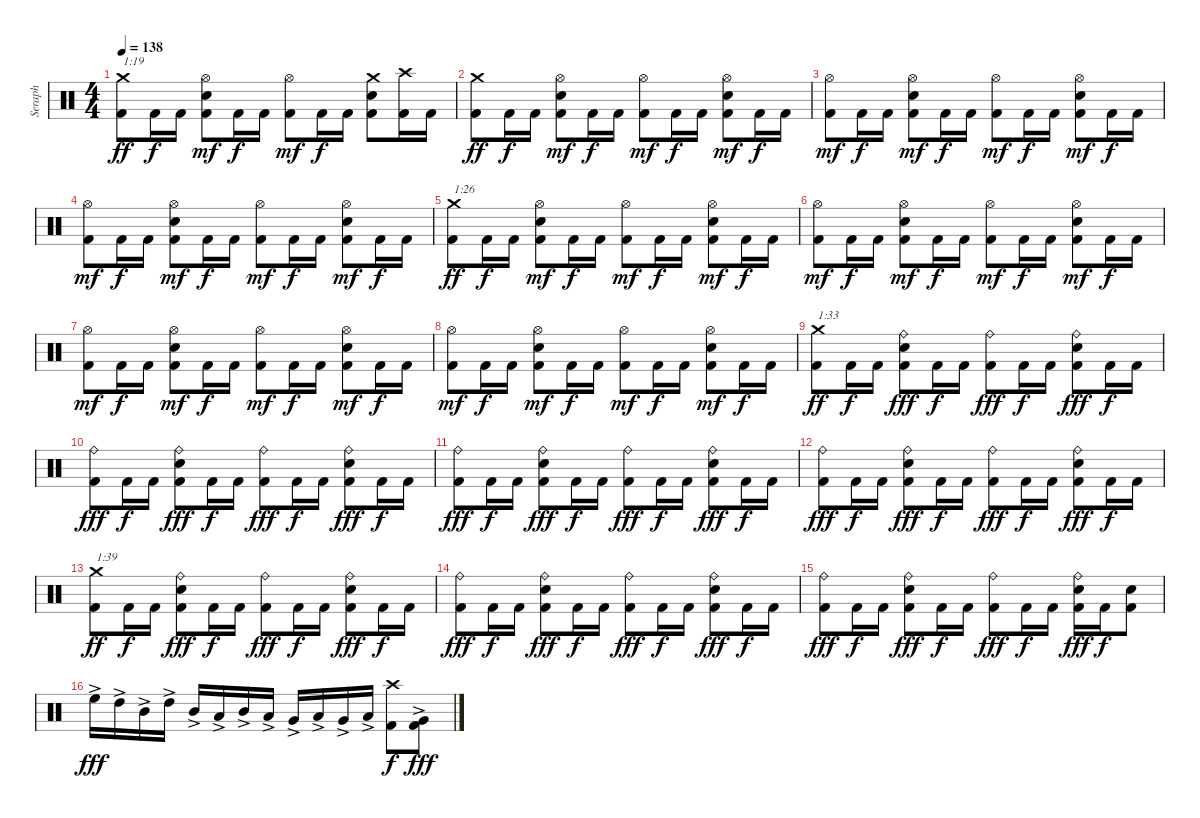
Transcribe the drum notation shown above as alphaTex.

\track ("Seraph" "Seraph") {instrument percussion}
\staff {score}
\articulation defaults
\ts (4 4)
\tempo 138
\clef neutral
\ks c
("Kick (hit) 2" "Crash medium (hit)").8{txt "1:19" dy ff} "Kick (hit) 2".16{dy f} "Kick (hit) 2".16 ("Kick (hit) 2" "Electric Snare (hit)" "Hi-Hat (open)").8{dy mf} "Kick (hit) 2".16{dy f} "Kick (hit) 2".16 ("Kick (hit) 2" "Hi-Hat (open)").8{dy mf} "Kick (hit) 2".16{dy f} "Kick (hit) 2".16 ("Kick (hit) 2" "Electric Snare (hit)" "Crash medium (hit)").8 ("Kick (hit) 2" "Crash high (hit)").16 "Kick (hit) 2".16 |
("Kick (hit) 2" "Crash medium (hit)").8{dy ff} "Kick (hit) 2".16{dy f} "Kick (hit) 2".16 ("Kick (hit) 2" "Electric Snare (hit)" "Hi-Hat (open)").8{dy mf} "Kick (hit) 2".16{dy f} "Kick (hit) 2".16 ("Kick (hit) 2" "Hi-Hat (open)").8{dy mf} "Kick (hit) 2".16{dy f} "Kick (hit) 2".16 ("Kick (hit) 2" "Electric Snare (hit)" "Hi-Hat (open)").8{dy mf} "Kick (hit) 2".16{dy f} "Kick (hit) 2".16 |
("Kick (hit) 2" "Hi-Hat (open)").8{dy mf} "Kick (hit) 2".16{dy f} "Kick (hit) 2".16 ("Kick (hit) 2" "Electric Snare (hit)" "Hi-Hat (open)").8{dy mf} "Kick (hit) 2".16{dy f} "Kick (hit) 2".16 ("Kick (hit) 2" "Hi-Hat (open)").8{dy mf} "Kick (hit) 2".16{dy f} "Kick (hit) 2".16 ("Kick (hit) 2" "Electric Snare (hit)" "Hi-Hat (open)").8{dy mf} "Kick (hit) 2".16{dy f} "Kick (hit) 2".16 |
("Kick (hit) 2" "Hi-Hat (open)").8{dy mf} "Kick (hit) 2".16{dy f} "Kick (hit) 2".16 ("Kick (hit) 2" "Electric Snare (hit)" "Hi-Hat (open)").8{dy mf} "Kick (hit) 2".16{dy f} "Kick (hit) 2".16 ("Kick (hit) 2" "Hi-Hat (open)").8{dy mf} "Kick (hit) 2".16{dy f} "Kick (hit) 2".16 ("Kick (hit) 2" "Electric Snare (hit)" "Hi-Hat (open)").8{dy mf} "Kick (hit) 2".16{dy f} "Kick (hit) 2".16 |
("Kick (hit) 2" "Crash medium (hit)").8{txt "1:26" dy ff} "Kick (hit) 2".16{dy f} "Kick (hit) 2".16 ("Kick (hit) 2" "Electric Snare (hit)" "Hi-Hat (open)").8{dy mf} "Kick (hit) 2".16{dy f} "Kick (hit) 2".16 ("Kick (hit) 2" "Hi-Hat (open)").8{dy mf} "Kick (hit) 2".16{dy f} "Kick (hit) 2".16 ("Kick (hit) 2" "Electric Snare (hit)" "Hi-Hat (open)").8{dy mf} "Kick (hit) 2".16{dy f} "Kick (hit) 2".16 |
("Kick (hit) 2" "Hi-Hat (open)").8{dy mf} "Kick (hit) 2".16{dy f} "Kick (hit) 2".16 ("Kick (hit) 2" "Electric Snare (hit)" "Hi-Hat (open)").8{dy mf} "Kick (hit) 2".16{dy f} "Kick (hit) 2".16 ("Kick (hit) 2" "Hi-Hat (open)").8{dy mf} "Kick (hit) 2".16{dy f} "Kick (hit) 2".16 ("Kick (hit) 2" "Electric Snare (hit)" "Hi-Hat (open)").8{dy mf} "Kick (hit) 2".16{dy f} "Kick (hit) 2".16 |
("Kick (hit) 2" "Hi-Hat (open)").8{dy mf} "Kick (hit) 2".16{dy f} "Kick (hit) 2".16 ("Kick (hit) 2" "Electric Snare (hit)" "Hi-Hat (open)").8{dy mf} "Kick (hit) 2".16{dy f} "Kick (hit) 2".16 ("Kick (hit) 2" "Hi-Hat (open)").8{dy mf} "Kick (hit) 2".16{dy f} "Kick (hit) 2".16 ("Kick (hit) 2" "Electric Snare (hit)" "Hi-Hat (open)").8{dy mf} "Kick (hit) 2".16{dy f} "Kick (hit) 2".16 |
("Kick (hit) 2" "Hi-Hat (open)").8{dy mf} "Kick (hit) 2".16{dy f} "Kick (hit) 2".16 ("Kick (hit) 2" "Electric Snare (hit)" "Hi-Hat (open)").8{dy mf} "Kick (hit) 2".16{dy f} "Kick (hit) 2".16 ("Kick (hit) 2" "Hi-Hat (open)").8{dy mf} "Kick (hit) 2".16{dy f} "Kick (hit) 2".16 ("Kick (hit) 2" "Electric Snare (hit)" "Hi-Hat (open)").8{dy mf} "Kick (hit) 2".16{dy f} "Kick (hit) 2".16 |
("Kick (hit) 2" "Crash medium (hit)").8{txt "1:33" dy ff} "Kick (hit) 2".16{dy f} "Kick (hit) 2".16 ("Kick (hit) 2" "Electric Snare (hit)" "Ride (bell)").8{dy fff} "Kick (hit) 2".16{dy f} "Kick (hit) 2".16 ("Kick (hit) 2" "Ride (bell)").8{dy fff} "Kick (hit) 2".16{dy f} "Kick (hit) 2".16 ("Kick (hit) 2" "Electric Snare (hit)" "Ride (bell)").8{dy fff} "Kick (hit) 2".16{dy f} "Kick (hit) 2".16 |
("Kick (hit) 2" "Ride (bell)").8{dy fff} "Kick (hit) 2".16{dy f} "Kick (hit) 2".16 ("Kick (hit) 2" "Electric Snare (hit)" "Ride (bell)").8{dy fff} "Kick (hit) 2".16{dy f} "Kick (hit) 2".16 ("Kick (hit) 2" "Ride (bell)").8{dy fff} "Kick (hit) 2".16{dy f} "Kick (hit) 2".16 ("Kick (hit) 2" "Electric Snare (hit)" "Ride (bell)").8{dy fff} "Kick (hit) 2".16{dy f} "Kick (hit) 2".16 |
("Kick (hit) 2" "Ride (bell)").8{dy fff} "Kick (hit) 2".16{dy f} "Kick (hit) 2".16 ("Kick (hit) 2" "Electric Snare (hit)" "Ride (bell)").8{dy fff} "Kick (hit) 2".16{dy f} "Kick (hit) 2".16 ("Kick (hit) 2" "Ride (bell)").8{dy fff} "Kick (hit) 2".16{dy f} "Kick (hit) 2".16 ("Kick (hit) 2" "Electric Snare (hit)" "Ride (bell)").8{dy fff} "Kick (hit) 2".16{dy f} "Kick (hit) 2".16 |
("Kick (hit) 2" "Ride (bell)").8{dy fff} "Kick (hit) 2".16{dy f} "Kick (hit) 2".16 ("Kick (hit) 2" "Electric Snare (hit)" "Ride (bell)").8{dy fff} "Kick (hit) 2".16{dy f} "Kick (hit) 2".16 ("Kick (hit) 2" "Ride (bell)").8{dy fff} "Kick (hit) 2".16{dy f} "Kick (hit) 2".16 ("Kick (hit) 2" "Electric Snare (hit)" "Ride (bell)").8{dy fff} "Kick (hit) 2".16{dy f} "Kick (hit) 2".16 |
("Kick (hit) 2" "Crash medium (hit)").8{txt "1:39" dy ff} "Kick (hit) 2".16{dy f} "Kick (hit) 2".16 ("Kick (hit) 2" "Electric Snare (hit)" "Ride (bell)").8{dy fff} "Kick (hit) 2".16{dy f} "Kick (hit) 2".16 ("Kick (hit) 2" "Ride (bell)").8{dy fff} "Kick (hit) 2".16{dy f} "Kick (hit) 2".16 ("Kick (hit) 2" "Electric Snare (hit)" "Ride (bell)").8{dy fff} "Kick (hit) 2".16{dy f} "Kick (hit) 2".16 |
("Kick (hit) 2" "Ride (bell)").8{dy fff} "Kick (hit) 2".16{dy f} "Kick (hit) 2".16 ("Kick (hit) 2" "Electric Snare (hit)" "Ride (bell)").8{dy fff} "Kick (hit) 2".16{dy f} "Kick (hit) 2".16 ("Kick (hit) 2" "Ride (bell)").8{dy fff} "Kick (hit) 2".16{dy f} "Kick (hit) 2".16 ("Kick (hit) 2" "Electric Snare (hit)" "Ride (bell)").8{dy fff} "Kick (hit) 2".16{dy f} "Kick (hit) 2".16 |
("Kick (hit) 2" "Ride (bell)").8{dy fff} "Kick (hit) 2".16{dy f} "Kick (hit) 2".16 ("Kick (hit) 2" "Electric Snare (hit)" "Ride (bell)").8{dy fff} "Kick (hit) 2".16{dy f} "Kick (hit) 2".16 ("Kick (hit) 2" "Ride (bell)").8{dy fff} "Kick (hit) 2".16{dy f} "Kick (hit) 2".16 ("Kick (hit) 2" "Electric Snare (hit)" "Ride (bell)").16{dy fff} "Kick (hit) 2".16{dy f} ("Kick (hit) 2" "Electric Snare (hit)").8 |
"High Floor Tom (hit)"{ac}.16{dy fff} "High Tom (hit)"{ac}.16 "Mid Tom (hit)"{ac}.16 "High Tom (hit)"{ac}.16 "Mid Tom (hit)"{ac}.16 "Low Tom (hit)"{ac}.16 "Mid Tom (hit)"{ac}.16 "Low Tom (hit)"{ac}.16 "Very Low Tom (hit)"{ac}.16 "Low Tom (hit)"{ac}.16 "Very Low Tom (hit)"{ac}.16 "Low Floor Tom (hit)"{ac}.16 ("Kick (hit) 2" "Crash high (hit)").8{dy f} ("Kick (hit) 2" "Very Low Tom (hit)"{ac}).8{dy fff}
